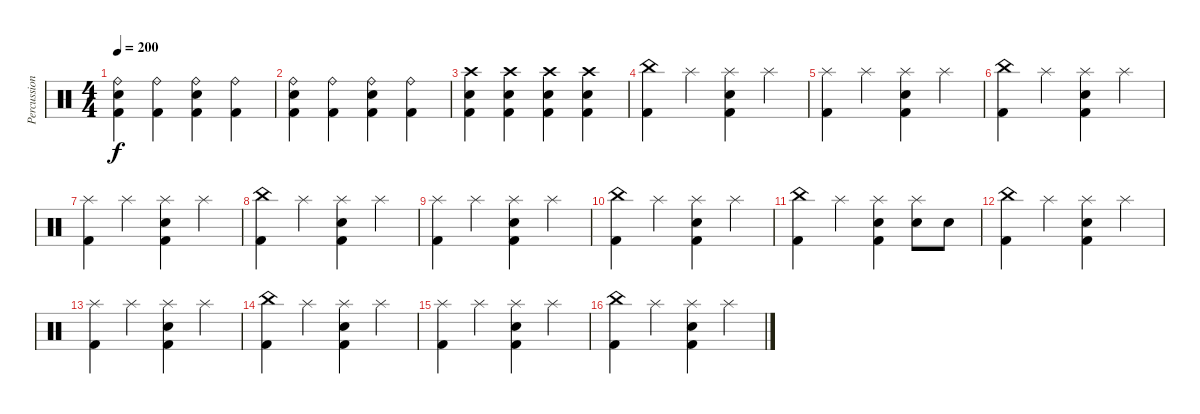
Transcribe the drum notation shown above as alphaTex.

\track ("Percussion" "Percussion") {instrument percussion}
\staff {score}
\articulation defaults
\ts (4 4)
\tempo 200
\clef neutral
\ks c
("Ride (bell)" "Snare (hit) 2" "Kick (hit) 2").4{dy f} ("Ride (bell)" "Kick (hit) 2").4 ("Ride (bell)" "Snare (hit) 2" "Kick (hit) 2").4 ("Ride (bell)" "Kick (hit) 2").4 |
("Ride (bell)" "Snare (hit) 2" "Kick (hit) 2").4 ("Ride (bell)" "Kick (hit) 2").4 ("Ride (bell)" "Snare (hit) 2" "Kick (hit) 2").4 ("Ride (bell)" "Kick (hit) 2").4 |
("Crash high (hit)" "Snare (hit) 2" "Kick (hit) 2").4 ("Crash high (hit)" "Snare (hit) 2" "Kick (hit) 2").4 ("Crash high (hit)" "Snare (hit) 2" "Kick (hit) 2").4 ("Crash high (hit)" "Snare (hit) 2" "Kick (hit) 2").4 |
("China (hit)" "Kick (hit) 2").4 "Splash (hit)".4 ("Splash (hit)" "Snare (hit) 2" "Kick (hit) 2").4 "Splash (hit)".4 |
("Splash (hit)" "Kick (hit) 2").4 "Splash (hit)".4 ("Splash (hit)" "Snare (hit) 2" "Kick (hit) 2").4 "Splash (hit)".4 |
("China (hit)" "Kick (hit) 2").4 "Splash (hit)".4 ("Splash (hit)" "Snare (hit) 2" "Kick (hit) 2").4 "Splash (hit)".4 |
("Splash (hit)" "Kick (hit) 2").4 "Splash (hit)".4 ("Splash (hit)" "Snare (hit) 2" "Kick (hit) 2").4 "Splash (hit)".4 |
("China (hit)" "Kick (hit) 2").4 "Splash (hit)".4 ("Splash (hit)" "Snare (hit) 2" "Kick (hit) 2").4 "Splash (hit)".4 |
("Splash (hit)" "Kick (hit) 2").4 "Splash (hit)".4 ("Splash (hit)" "Snare (hit) 2" "Kick (hit) 2").4 "Splash (hit)".4 |
("China (hit)" "Kick (hit) 2").4 "Splash (hit)".4 ("Splash (hit)" "Snare (hit) 2" "Kick (hit) 2").4 "Splash (hit)".4 |
("China (hit)" "Kick (hit) 2").4 "Splash (hit)".4 ("Splash (hit)" "Snare (hit) 2" "Kick (hit) 2").4 ("Splash (hit)" "Snare (hit) 2").8 "Snare (hit) 2".8 |
("China (hit)" "Kick (hit) 2").4 "Splash (hit)".4 ("Splash (hit)" "Snare (hit) 2" "Kick (hit) 2").4 "Splash (hit)".4 |
("Splash (hit)" "Kick (hit) 2").4 "Splash (hit)".4 ("Splash (hit)" "Snare (hit) 2" "Kick (hit) 2").4 "Splash (hit)".4 |
("China (hit)" "Kick (hit) 2").4 "Splash (hit)".4 ("Splash (hit)" "Snare (hit) 2" "Kick (hit) 2").4 "Splash (hit)".4 |
("Splash (hit)" "Kick (hit) 2").4 "Splash (hit)".4 ("Splash (hit)" "Snare (hit) 2" "Kick (hit) 2").4 "Splash (hit)".4 |
("China (hit)" "Kick (hit) 2").4 "Splash (hit)".4 ("Splash (hit)" "Snare (hit) 2" "Kick (hit) 2").4 "Splash (hit)".4
